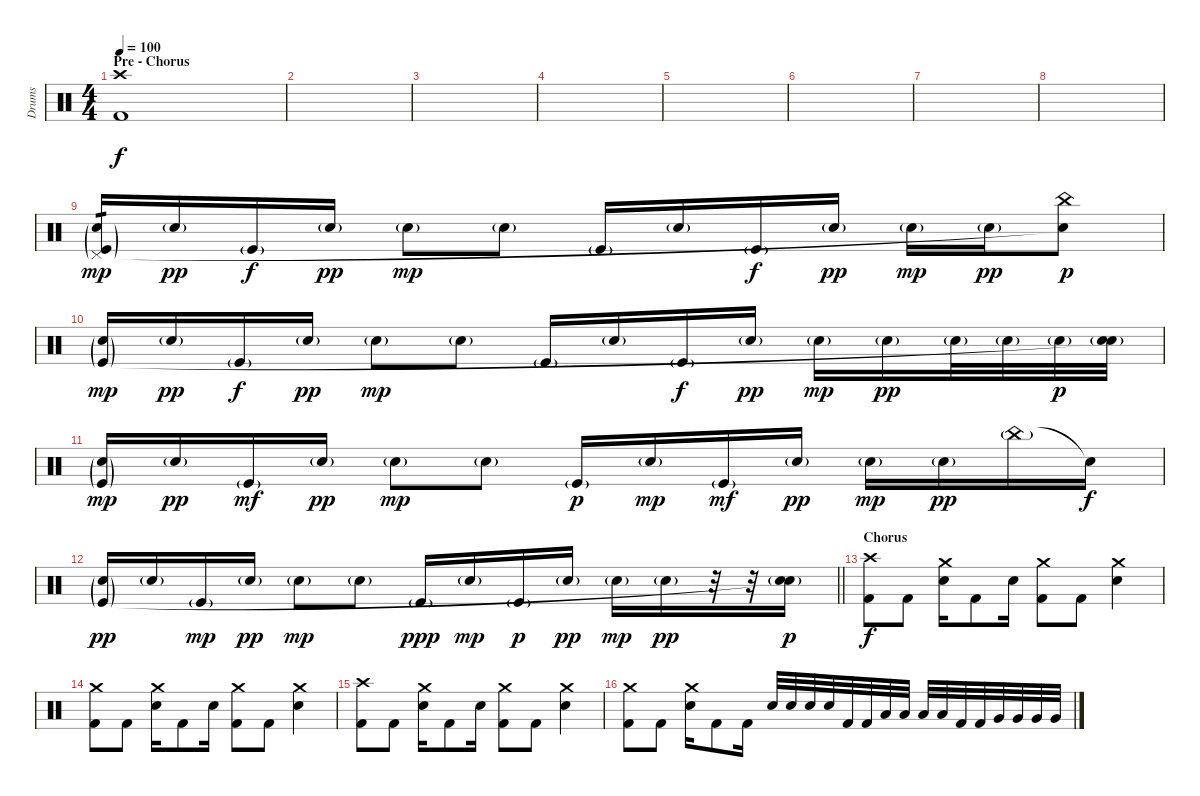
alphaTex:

\track ("Drums" "Drums") {instrument percussion}
\staff {score}
\articulation defaults
\ts (4 4)
\section ("" "Pre - Chorus")
\tempo 100
\clef neutral
\ks c
("Crash high (hit)" "Kick (hit) 2").1{dy f} |
|
|
|
|
|
|
|
("Electric Snare (hit)"{g} "Pedal Hi-Hat (hit)"{g} "Kick (hit)"{g}).16{tp 1 dy mp} "Snare (hit) 2"{g}.16{dy pp} "Kick (hit)"{g}.16{dy f} "Snare (hit) 2"{g}.16{dy pp} "Electric Snare (hit)"{g}.8{dy mp} "Electric Snare (hit)"{g}.8 "Kick (hit)"{g}.16 "Electric Snare (hit)"{g}.16 "Kick (hit)"{g}.16{dy f} "Snare (hit) 2"{g}.16{dy pp} "Electric Snare (hit)"{g}.16{dy mp} "Snare (hit) 2"{g}.16{dy pp} ("China (hit)" "Snare (hit)"{t}).8{dy p} |
("Electric Snare (hit)"{g} "Kick (hit)"{g}).16{dy mp} "Snare (hit) 2"{g}.16{dy pp} "Kick (hit)"{g}.16{dy f} "Snare (hit) 2"{g}.16{dy pp} "Electric Snare (hit)"{g}.8{dy mp} "Electric Snare (hit)"{g}.8 "Kick (hit)"{g}.16 "Electric Snare (hit)"{g}.16 "Kick (hit)"{g}.16{dy f} "Snare (hit) 2"{g}.16{dy pp} "Electric Snare (hit)"{g}.16{dy mp} "Snare (hit) 2"{g}.16{dy pp} "Electric Snare (hit)"{g}.32 "Electric Snare (hit)"{g}.32 "Electric Snare (hit)"{g}.32{dy p} ("Electric Snare (hit)"{g} "Snare (hit)"{t}).32 |
("Electric Snare (hit)"{g} "Kick (hit)"{g}).16{dy mp} "Snare (hit) 2"{g}.16{dy pp} "Kick (hit)"{g}.16{dy mf} "Snare (hit) 2"{g}.16{dy pp} "Electric Snare (hit)"{g}.8{dy mp} "Electric Snare (hit)"{g}.8 "Kick (hit)"{g}.16{dy p} "Electric Snare (hit)"{g}.16{dy mp} "Kick (hit)"{g}.16{dy mf} "Snare (hit) 2"{g}.16{dy pp} "Electric Snare (hit)"{g}.16{dy mp} "Snare (hit) 2"{g}.16{dy pp} "China (hit)"{g}.16 "Snare (hit)"{t}.16{dy f} |
\barLineRight lightlight
("Electric Snare (hit)"{g} "Kick (hit)"{g}).16{dy pp} "Snare (hit) 2"{g}.16 "Kick (hit)"{g}.16{dy mp} "Snare (hit) 2"{g}.16{dy pp} "Electric Snare (hit)"{g}.8{dy mp} "Electric Snare (hit)"{g}.8 "Kick (hit)"{g}.16{dy ppp} "Electric Snare (hit)"{g}.16{dy mp} "Kick (hit)"{g}.16{dy p} "Snare (hit) 2"{g}.16{dy pp} "Electric Snare (hit)"{g}.16{dy mp} "Snare (hit) 2"{g}.16{dy pp} r.32 r.32 ("Snare (hit) 2"{g} "Snare (hit)"{t}).16{dy p} |
\section ("" "Chorus")
("Crash high (hit)" "Kick (hit) 2").8{dy f} "Kick (hit) 2".8 ("Crash medium (hit)" "Electric Snare (hit)").16 "Kick (hit) 2".8 "Electric Snare (hit)".16 ("Crash medium (hit)" "Kick (hit) 2").8 "Kick (hit) 2".8 ("Crash medium (hit)" "Electric Snare (hit)").4 |
("Crash medium (hit)" "Kick (hit) 2").8 "Kick (hit) 2".8 ("Crash medium (hit)" "Electric Snare (hit)").16 "Kick (hit) 2".8 "Electric Snare (hit)".16 ("Crash medium (hit)" "Kick (hit) 2").8 "Kick (hit) 2".8 ("Crash medium (hit)" "Electric Snare (hit)").4 |
("Crash high (hit)" "Kick (hit) 2").8 "Kick (hit) 2".8 ("Crash medium (hit)" "Electric Snare (hit)").16 "Kick (hit) 2".8 "Electric Snare (hit)".16 ("Crash medium (hit)" "Kick (hit) 2").8 "Kick (hit) 2".8 ("Crash medium (hit)" "Electric Snare (hit)").4 |
("Crash medium (hit)" "Kick (hit) 2").8 "Kick (hit) 2".8 ("Crash medium (hit)" "Electric Snare (hit)").16 "Kick (hit) 2".8 "Kick (hit) 2".16 "Electric Snare (hit)".32 "Electric Snare (hit)".32 "Electric Snare (hit)".32 "Electric Snare (hit)".32 "Kick (hit) 2".32 "Kick (hit) 2".32 "Low Tom (hit)".32 "Low Tom (hit)".32 "Low Tom (hit)".32 "Low Tom (hit)".32 "Kick (hit) 2".32 "Kick (hit) 2".32 "Very Low Tom (hit)".32 "Very Low Tom (hit)".32 "Very Low Tom (hit)".32 "Very Low Tom (hit)".32
